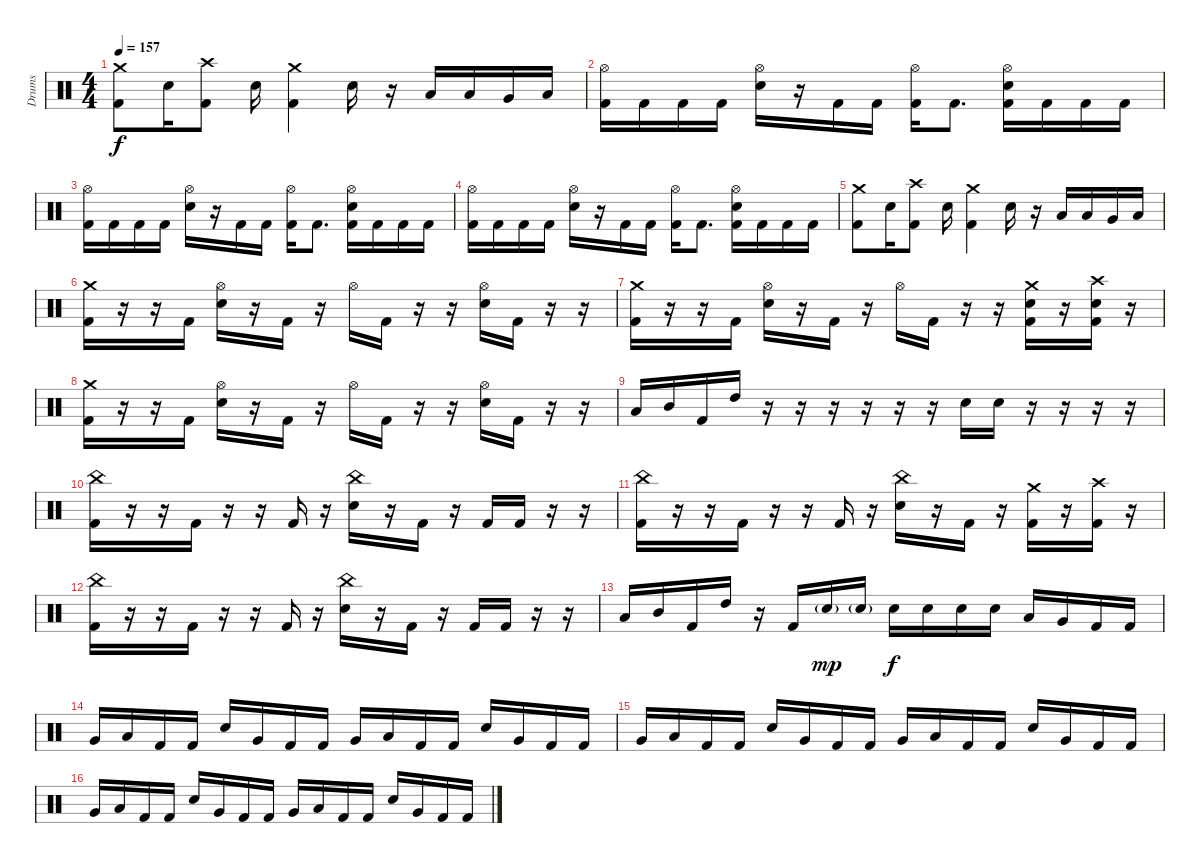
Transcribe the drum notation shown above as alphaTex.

\track ("Drums" "Drums") {instrument percussion}
\staff {score}
\articulation defaults
\ts (4 4)
\tempo 157
\clef neutral
\ks c
("Crash medium (hit)" "Kick (hit) 2").8{dy f} "Electric Snare (hit)".16 ("Crash high (hit)" "Kick (hit) 2").8 "Electric Snare (hit)".16 ("Crash medium (hit)" "Kick (hit) 2").4 "Electric Snare (hit)".16 r.16 "Low Tom (hit)".16 "Low Tom (hit)".16 "Very Low Tom (hit)".16 "Low Floor Tom (hit)".16 |
("Hi-Hat (open)" "Kick (hit) 2").16 "Kick (hit) 2".16 "Kick (hit) 2".16 "Kick (hit) 2".16 ("Hi-Hat (open)" "Electric Snare (hit)").16 r.16 "Kick (hit) 2".16 "Kick (hit) 2".16 ("Hi-Hat (open)" "Kick (hit) 2").16 "Kick (hit) 2".8{d} ("Hi-Hat (open)" "Electric Snare (hit)" "Kick (hit) 2").16 "Kick (hit) 2".16 "Kick (hit) 2".16 "Kick (hit) 2".16 |
("Hi-Hat (open)" "Kick (hit) 2").16 "Kick (hit) 2".16 "Kick (hit) 2".16 "Kick (hit) 2".16 ("Hi-Hat (open)" "Electric Snare (hit)").16 r.16 "Kick (hit) 2".16 "Kick (hit) 2".16 ("Hi-Hat (open)" "Kick (hit) 2").16 "Kick (hit) 2".8{d} ("Hi-Hat (open)" "Electric Snare (hit)" "Kick (hit) 2").16 "Kick (hit) 2".16 "Kick (hit) 2".16 "Kick (hit) 2".16 |
("Hi-Hat (open)" "Kick (hit) 2").16 "Kick (hit) 2".16 "Kick (hit) 2".16 "Kick (hit) 2".16 ("Hi-Hat (open)" "Electric Snare (hit)").16 r.16 "Kick (hit) 2".16 "Kick (hit) 2".16 ("Hi-Hat (open)" "Kick (hit) 2").16 "Kick (hit) 2".8{d} ("Hi-Hat (open)" "Electric Snare (hit)" "Kick (hit) 2").16 "Kick (hit) 2".16 "Kick (hit) 2".16 "Kick (hit) 2".16 |
("Crash medium (hit)" "Kick (hit) 2").8 "Electric Snare (hit)".16 ("Crash high (hit)" "Kick (hit) 2").8 "Electric Snare (hit)".16 ("Crash medium (hit)" "Kick (hit) 2").4 "Electric Snare (hit)".16 r.16 "Low Tom (hit)".16 "Low Tom (hit)".16 "Very Low Tom (hit)".16 "Low Floor Tom (hit)".16 |
("Crash medium (hit)" "Kick (hit) 2").16 r.16 r.16 "Kick (hit) 2".16 ("Hi-Hat (open)" "Electric Snare (hit)").16 r.16 "Kick (hit) 2".16 r.16 "Hi-Hat (open)".16 "Kick (hit) 2".16 r.16 r.16 ("Hi-Hat (open)" "Electric Snare (hit)").16 "Kick (hit) 2".16 r.16 r.16 |
("Crash medium (hit)" "Kick (hit) 2").16 r.16 r.16 "Kick (hit) 2".16 ("Hi-Hat (open)" "Electric Snare (hit)").16 r.16 "Kick (hit) 2".16 r.16 "Hi-Hat (open)".16 "Kick (hit) 2".16 r.16 r.16 ("Crash medium (hit)" "Electric Snare (hit)" "Kick (hit) 2").16 r.16 ("Crash high (hit)" "Electric Snare (hit)" "Kick (hit) 2").16 r.16 |
("Crash medium (hit)" "Kick (hit) 2").16 r.16 r.16 "Kick (hit) 2".16 ("Hi-Hat (open)" "Electric Snare (hit)").16 r.16 "Kick (hit) 2".16 r.16 "Hi-Hat (open)".16 "Kick (hit) 2".16 r.16 r.16 ("Hi-Hat (open)" "Electric Snare (hit)").16 "Kick (hit) 2".16 r.16 r.16 |
"Low Tom (hit)".16 "Mid Tom (hit)".16 "Kick (hit) 2".16 "High Tom (hit)".16 r.16 r.16 r.16 r.16 r.16 r.16 "Electric Snare (hit)".16 "Electric Snare (hit)".16 r.16 r.16 r.16 r.16 |
("China (hit)" "Kick (hit) 2").16 r.16 r.16 "Kick (hit) 2".16 r.16 r.16 "Kick (hit) 2".16 r.16 ("China (hit)" "Electric Snare (hit)").16 r.16 "Kick (hit) 2".16 r.16 "Kick (hit) 2".16 "Kick (hit) 2".16 r.16 r.16 |
("China (hit)" "Kick (hit) 2").16 r.16 r.16 "Kick (hit) 2".16 r.16 r.16 "Kick (hit) 2".16 r.16 ("China (hit)" "Electric Snare (hit)").16 r.16 "Kick (hit) 2".16 r.16 ("Crash medium (hit)" "Kick (hit) 2").16 r.16 ("Crash high (hit)" "Kick (hit) 2").16 r.16 |
("China (hit)" "Kick (hit) 2").16 r.16 r.16 "Kick (hit) 2".16 r.16 r.16 "Kick (hit) 2".16 r.16 ("China (hit)" "Electric Snare (hit)").16 r.16 "Kick (hit) 2".16 r.16 "Kick (hit) 2".16 "Kick (hit) 2".16 r.16 r.16 |
"Low Tom (hit)".16 "Mid Tom (hit)".16 "Kick (hit) 2".16 "High Tom (hit)".16 r.16 "Kick (hit) 2".16 "Snare (hit) 2"{g}.16{dy mp} "Snare (hit) 2"{g}.16 "Electric Snare (hit)".16{dy f} "Electric Snare (hit)".16 "Electric Snare (hit)".16 "Electric Snare (hit)".16 "Low Tom (hit)".16 "Very Low Tom (hit)".16 "Kick (hit) 2".16 "Kick (hit) 2".16 |
"Very Low Tom (hit)".16 "Low Floor Tom (hit)".16 "Kick (hit) 2".16 "Kick (hit) 2".16 "Electric Snare (hit)".16 "Very Low Tom (hit)".16 "Kick (hit) 2".16 "Kick (hit) 2".16 "Very Low Tom (hit)".16 "Low Floor Tom (hit)".16 "Kick (hit) 2".16 "Kick (hit) 2".16 "Electric Snare (hit)".16 "Very Low Tom (hit)".16 "Kick (hit) 2".16 "Kick (hit) 2".16 |
"Very Low Tom (hit)".16 "Low Floor Tom (hit)".16 "Kick (hit) 2".16 "Kick (hit) 2".16 "Electric Snare (hit)".16 "Very Low Tom (hit)".16 "Kick (hit) 2".16 "Kick (hit) 2".16 "Very Low Tom (hit)".16 "Low Floor Tom (hit)".16 "Kick (hit) 2".16 "Kick (hit) 2".16 "Electric Snare (hit)".16 "Very Low Tom (hit)".16 "Kick (hit) 2".16 "Kick (hit) 2".16 |
"Very Low Tom (hit)".16 "Low Floor Tom (hit)".16 "Kick (hit) 2".16 "Kick (hit) 2".16 "Electric Snare (hit)".16 "Very Low Tom (hit)".16 "Kick (hit) 2".16 "Kick (hit) 2".16 "Very Low Tom (hit)".16 "Low Floor Tom (hit)".16 "Kick (hit) 2".16 "Kick (hit) 2".16 "Electric Snare (hit)".16 "Very Low Tom (hit)".16 "Kick (hit) 2".16 "Kick (hit) 2".16
